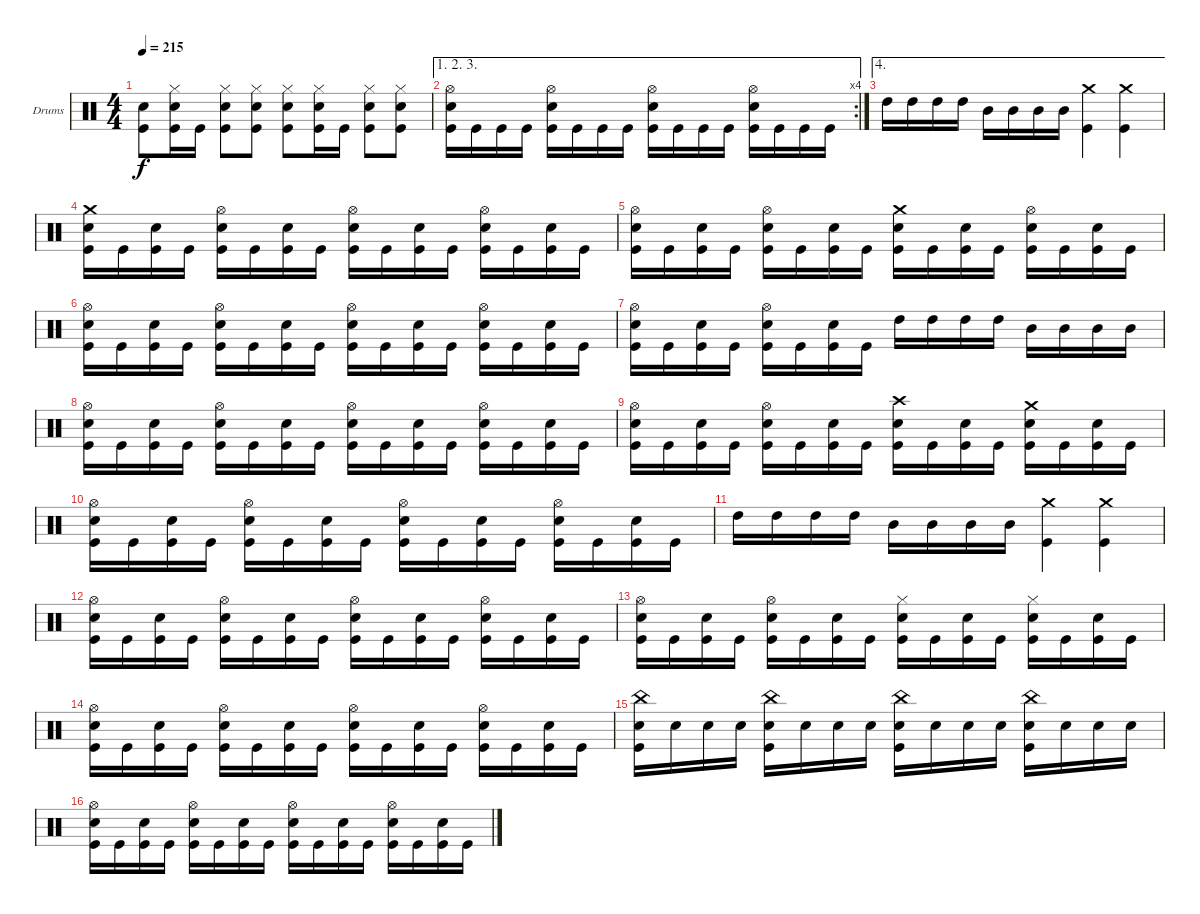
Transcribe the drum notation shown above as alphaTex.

\defaultSystemsLayout 4
\bracketExtendMode groupsimilarinstruments
\firstSystemTrackNameOrientation horizontal
\otherSystemsTrackNameOrientation horizontal
\track ("Trey Williams" "Drums") {instrument percussion}
\staff {score}
\articulation defaults
\ts (4 4)
\tempo 215
\clef neutral
\ks c
("Kick (hit)" "Snare (hit) 2").8{dy f} ("Kick (hit)" "Snare (hit) 2" "Hi-Hat (closed)").16 "Kick (hit)".16 ("Kick (hit)" "Snare (hit) 2" "Hi-Hat (closed)").8 ("Kick (hit)" "Snare (hit) 2" "Hi-Hat (closed)").8 ("Kick (hit)" "Snare (hit) 2" "Hi-Hat (closed)").8 ("Kick (hit)" "Snare (hit) 2" "Hi-Hat (closed)").16 "Kick (hit)".16 ("Kick (hit)" "Snare (hit) 2" "Hi-Hat (closed)").8 ("Kick (hit)" "Snare (hit) 2" "Hi-Hat (closed)").8 |
\ae (1 2 3)
\rc 4
("Kick (hit)" "Snare (hit) 2" "Hi-Hat (open)").16 "Kick (hit)".16 "Kick (hit)".16 "Kick (hit)".16 ("Kick (hit)" "Snare (hit) 2" "Hi-Hat (open)").16 "Kick (hit)".16 "Kick (hit)".16 "Kick (hit)".16 ("Kick (hit)" "Snare (hit) 2" "Hi-Hat (open)").16 "Kick (hit)".16 "Kick (hit)".16 "Kick (hit)".16 ("Kick (hit)" "Snare (hit) 2" "Hi-Hat (open)").16 "Kick (hit)".16 "Kick (hit)".16 "Kick (hit)".16 |
\ae 4 "High Tom (hit)".16 "High Tom (hit)".16 "High Tom (hit)".16 "High Tom (hit)".16 "Mid Tom (hit)".16 "Mid Tom (hit)".16 "Mid Tom (hit)".16 "Mid Tom (hit)".16
("Kick (hit)" "Crash medium (hit)").4 ("Kick (hit)" "Crash medium (hit)").4 |
("Kick (hit)" "Snare (hit) 2" "Crash medium (hit)").16 "Kick (hit)".16 ("Kick (hit)" "Snare (hit) 2").16 "Kick (hit)".16 ("Kick (hit)" "Snare (hit) 2" "Hi-Hat (open)").16 "Kick (hit)".16 ("Kick (hit)" "Snare (hit) 2").16 "Kick (hit)".16 ("Kick (hit)" "Snare (hit) 2" "Hi-Hat (open)").16 "Kick (hit)".16 ("Kick (hit)" "Snare (hit) 2").16 "Kick (hit)".16 ("Kick (hit)" "Snare (hit) 2" "Hi-Hat (open)").16 "Kick (hit)".16 ("Kick (hit)" "Snare (hit) 2").16 "Kick (hit)".16 |
("Kick (hit)" "Snare (hit) 2" "Hi-Hat (open)").16 "Kick (hit)".16 ("Kick (hit)" "Snare (hit) 2").16 "Kick (hit)".16 ("Kick (hit)" "Snare (hit) 2" "Hi-Hat (open)").16 "Kick (hit)".16 ("Kick (hit)" "Snare (hit) 2").16 "Kick (hit)".16 ("Kick (hit)" "Snare (hit) 2" "Crash medium (hit)").16 "Kick (hit)".16 ("Kick (hit)" "Snare (hit) 2").16 "Kick (hit)".16 ("Kick (hit)" "Snare (hit) 2" "Hi-Hat (open)").16 "Kick (hit)".16 ("Kick (hit)" "Snare (hit) 2").16 "Kick (hit)".16 |
("Kick (hit)" "Snare (hit) 2" "Hi-Hat (open)").16 "Kick (hit)".16 ("Kick (hit)" "Snare (hit) 2").16 "Kick (hit)".16 ("Kick (hit)" "Snare (hit) 2" "Hi-Hat (open)").16 "Kick (hit)".16 ("Kick (hit)" "Snare (hit) 2").16 "Kick (hit)".16 ("Kick (hit)" "Snare (hit) 2" "Hi-Hat (open)").16 "Kick (hit)".16 ("Kick (hit)" "Snare (hit) 2").16 "Kick (hit)".16 ("Kick (hit)" "Snare (hit) 2" "Hi-Hat (open)").16 "Kick (hit)".16 ("Kick (hit)" "Snare (hit) 2").16 "Kick (hit)".16 |
("Kick (hit)" "Snare (hit) 2" "Hi-Hat (open)").16 "Kick (hit)".16 ("Kick (hit)" "Snare (hit) 2").16 "Kick (hit)".16 ("Kick (hit)" "Snare (hit) 2" "Hi-Hat (open)").16 "Kick (hit)".16 ("Kick (hit)" "Snare (hit) 2").16 "Kick (hit)".16 "High Tom (hit)".16 "High Tom (hit)".16 "High Tom (hit)".16 "High Tom (hit)".16 "Mid Tom (hit)".16 "Mid Tom (hit)".16 "Mid Tom (hit)".16 "Mid Tom (hit)".16 |
("Kick (hit)" "Snare (hit) 2" "Hi-Hat (open)").16 "Kick (hit)".16 ("Kick (hit)" "Snare (hit) 2").16 "Kick (hit)".16 ("Kick (hit)" "Snare (hit) 2" "Hi-Hat (open)").16 "Kick (hit)".16 ("Kick (hit)" "Snare (hit) 2").16 "Kick (hit)".16 ("Kick (hit)" "Snare (hit) 2" "Hi-Hat (open)").16 "Kick (hit)".16 ("Kick (hit)" "Snare (hit) 2").16 "Kick (hit)".16 ("Kick (hit)" "Snare (hit) 2" "Hi-Hat (open)").16 "Kick (hit)".16 ("Kick (hit)" "Snare (hit) 2").16 "Kick (hit)".16 |
("Kick (hit)" "Snare (hit) 2" "Hi-Hat (open)").16 "Kick (hit)".16 ("Kick (hit)" "Snare (hit) 2").16 "Kick (hit)".16 ("Kick (hit)" "Snare (hit) 2" "Hi-Hat (open)").16 "Kick (hit)".16 ("Kick (hit)" "Snare (hit) 2").16 "Kick (hit)".16 ("Kick (hit)" "Snare (hit) 2" "Crash high (hit)").16 "Kick (hit)".16 ("Kick (hit)" "Snare (hit) 2").16 "Kick (hit)".16 ("Kick (hit)" "Snare (hit) 2" "Crash medium (hit)").16 "Kick (hit)".16 ("Kick (hit)" "Snare (hit) 2").16 "Kick (hit)".16 |
("Kick (hit)" "Snare (hit) 2" "Hi-Hat (open)").16 "Kick (hit)".16 ("Kick (hit)" "Snare (hit) 2").16 "Kick (hit)".16 ("Kick (hit)" "Snare (hit) 2" "Hi-Hat (open)").16 "Kick (hit)".16 ("Kick (hit)" "Snare (hit) 2").16 "Kick (hit)".16 ("Kick (hit)" "Snare (hit) 2" "Hi-Hat (open)").16 "Kick (hit)".16 ("Kick (hit)" "Snare (hit) 2").16 "Kick (hit)".16 ("Kick (hit)" "Snare (hit) 2" "Hi-Hat (open)").16 "Kick (hit)".16 ("Kick (hit)" "Snare (hit) 2").16 "Kick (hit)".16 |
"High Tom (hit)".16 "High Tom (hit)".16 "High Tom (hit)".16 "High Tom (hit)".16 "Mid Tom (hit)".16 "Mid Tom (hit)".16 "Mid Tom (hit)".16 "Mid Tom (hit)".16 ("Kick (hit)" "Crash medium (hit)").4 ("Kick (hit)" "Crash medium (hit)").4 |
("Kick (hit)" "Snare (hit) 2" "Hi-Hat (open)").16 "Kick (hit)".16 ("Kick (hit)" "Snare (hit) 2").16 "Kick (hit)".16 ("Kick (hit)" "Snare (hit) 2" "Hi-Hat (open)").16 "Kick (hit)".16 ("Kick (hit)" "Snare (hit) 2").16 "Kick (hit)".16 ("Kick (hit)" "Snare (hit) 2" "Hi-Hat (open)").16 "Kick (hit)".16 ("Kick (hit)" "Snare (hit) 2").16 "Kick (hit)".16 ("Kick (hit)" "Snare (hit) 2" "Hi-Hat (open)").16 "Kick (hit)".16 ("Kick (hit)" "Snare (hit) 2").16 "Kick (hit)".16 |
("Kick (hit)" "Snare (hit) 2" "Hi-Hat (open)").16 "Kick (hit)".16 ("Kick (hit)" "Snare (hit) 2").16 "Kick (hit)".16 ("Kick (hit)" "Snare (hit) 2" "Hi-Hat (open)").16 "Kick (hit)".16 ("Kick (hit)" "Snare (hit) 2").16 "Kick (hit)".16 ("Kick (hit)" "Snare (hit) 2" "Hi-Hat (closed)").16 "Kick (hit)".16 ("Kick (hit)" "Snare (hit) 2").16 "Kick (hit)".16 ("Kick (hit)" "Snare (hit) 2" "Hi-Hat (closed)").16 "Kick (hit)".16 ("Kick (hit)" "Snare (hit) 2").16 "Kick (hit)".16 |
("Kick (hit)" "Snare (hit) 2" "Hi-Hat (open)").16 "Kick (hit)".16 ("Kick (hit)" "Snare (hit) 2").16 "Kick (hit)".16 ("Kick (hit)" "Snare (hit) 2" "Hi-Hat (open)").16 "Kick (hit)".16 ("Kick (hit)" "Snare (hit) 2").16 "Kick (hit)".16 ("Kick (hit)" "Snare (hit) 2" "Hi-Hat (open)").16 "Kick (hit)".16 ("Kick (hit)" "Snare (hit) 2").16 "Kick (hit)".16 ("Kick (hit)" "Snare (hit) 2" "Hi-Hat (open)").16 "Kick (hit)".16 ("Kick (hit)" "Snare (hit) 2").16 "Kick (hit)".16 |
("China (hit)" "Snare (hit) 2" "Kick (hit)").16 "Snare (hit) 2".16 "Snare (hit) 2".16 "Snare (hit) 2".16 ("China (hit)" "Snare (hit) 2" "Kick (hit)").16 "Snare (hit) 2".16 "Snare (hit) 2".16 "Snare (hit) 2".16 ("China (hit)" "Snare (hit) 2" "Kick (hit)").16 "Snare (hit) 2".16 "Snare (hit) 2".16 "Snare (hit) 2".16 ("China (hit)" "Snare (hit) 2" "Kick (hit)").16 "Snare (hit) 2".16 "Snare (hit) 2".16 "Snare (hit) 2".16 |
("Kick (hit)" "Snare (hit) 2" "Hi-Hat (open)").16 "Kick (hit)".16 ("Kick (hit)" "Snare (hit) 2").16 "Kick (hit)".16 ("Kick (hit)" "Snare (hit) 2" "Hi-Hat (open)").16 "Kick (hit)".16 ("Kick (hit)" "Snare (hit) 2").16 "Kick (hit)".16 ("Kick (hit)" "Snare (hit) 2" "Hi-Hat (open)").16 "Kick (hit)".16 ("Kick (hit)" "Snare (hit) 2").16 "Kick (hit)".16 ("Kick (hit)" "Snare (hit) 2" "Hi-Hat (open)").16 "Kick (hit)".16 ("Kick (hit)" "Snare (hit) 2").16 "Kick (hit)".16
